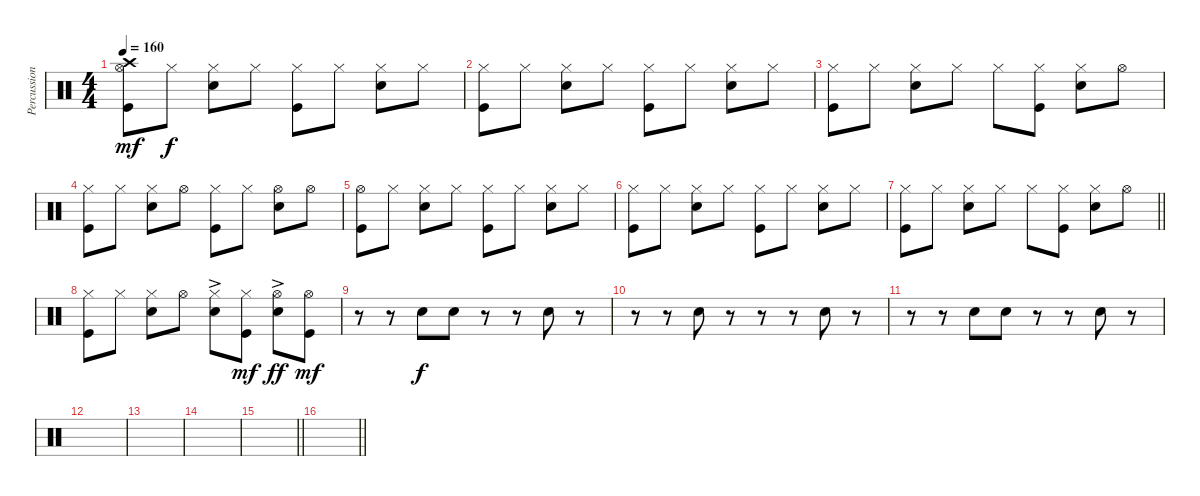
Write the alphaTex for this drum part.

\track ("Percussioni" "Percussion") {instrument percussion}
\staff {score}
\articulation defaults
\ts (4 4)
\tempo 160
\clef neutral
\ks c
("Crash high (hit)" "Hi-Hat (open)" "Kick (hit)").8{dy mf} "Hi-Hat (closed)".8{dy f} ("Hi-Hat (closed)" "Snare (hit) 2").8 "Hi-Hat (closed)".8 ("Hi-Hat (closed)" "Kick (hit)").8 "Hi-Hat (closed)".8 ("Hi-Hat (closed)" "Snare (hit) 2").8 "Hi-Hat (closed)".8 |
("Hi-Hat (closed)" "Kick (hit)").8 "Hi-Hat (closed)".8 ("Hi-Hat (closed)" "Snare (hit) 2").8 "Hi-Hat (closed)".8 ("Hi-Hat (closed)" "Kick (hit)").8 "Hi-Hat (closed)".8 ("Hi-Hat (closed)" "Snare (hit) 2").8 "Hi-Hat (closed)".8 |
("Hi-Hat (closed)" "Kick (hit)").8 "Hi-Hat (closed)".8 ("Hi-Hat (closed)" "Snare (hit) 2").8 "Hi-Hat (closed)".8 "Hi-Hat (closed)".8 ("Hi-Hat (closed)" "Kick (hit)").8 ("Hi-Hat (closed)" "Snare (hit) 2").8 "Hi-Hat (open)".8 |
("Hi-Hat (closed)" "Kick (hit)").8 "Hi-Hat (closed)".8 ("Hi-Hat (closed)" "Snare (hit) 2").8 "Hi-Hat (open)".8 ("Hi-Hat (closed)" "Kick (hit)").8 "Hi-Hat (closed)".8 ("Hi-Hat (open)" "Snare (hit) 2").8 "Hi-Hat (open)".8 |
("Hi-Hat (open)" "Kick (hit)").8 "Hi-Hat (closed)".8 ("Hi-Hat (closed)" "Snare (hit) 2").8 "Hi-Hat (closed)".8 ("Hi-Hat (closed)" "Kick (hit)").8 "Hi-Hat (closed)".8 ("Hi-Hat (closed)" "Snare (hit) 2").8 "Hi-Hat (closed)".8 |
("Hi-Hat (closed)" "Kick (hit)").8 "Hi-Hat (closed)".8 ("Hi-Hat (closed)" "Snare (hit) 2").8 "Hi-Hat (closed)".8 ("Hi-Hat (closed)" "Kick (hit)").8 "Hi-Hat (closed)".8 ("Hi-Hat (closed)" "Snare (hit) 2").8 "Hi-Hat (closed)".8 |
\barLineRight lightlight
("Hi-Hat (closed)" "Kick (hit)").8 "Hi-Hat (closed)".8 ("Hi-Hat (closed)" "Snare (hit) 2").8 "Hi-Hat (closed)".8 "Hi-Hat (closed)".8 ("Hi-Hat (closed)" "Kick (hit)").8 ("Hi-Hat (closed)" "Snare (hit) 2").8 "Hi-Hat (open)".8 |
("Hi-Hat (closed)" "Kick (hit)").8 "Hi-Hat (closed)".8 ("Hi-Hat (closed)" "Snare (hit) 2").8 "Hi-Hat (open)".8 ("Hi-Hat (closed)" "Snare (hit) 2"{ac}).8 ("Hi-Hat (closed)" "Kick (hit)").8{dy mf} ("Hi-Hat (open)" "Snare (hit) 2"{ac}).8{dy ff} ("Hi-Hat (open)" "Kick (hit)").8{dy mf} |
r.8 r.8 "Hand Clap (hit)".8{dy f} "Hand Clap (hit)".8 r.8 r.8 "Hand Clap (hit)".8 r.8 |
r.8 r.8 "Hand Clap (hit)".8 r.8 r.8 r.8 "Hand Clap (hit)".8 r.8 |
r.8 r.8 "Hand Clap (hit)".8 "Hand Clap (hit)".8 r.8 r.8 "Hand Clap (hit)".8 r.8 |
|
|
|
\barLineRight lightlight
|
\barLineRight lightlight
